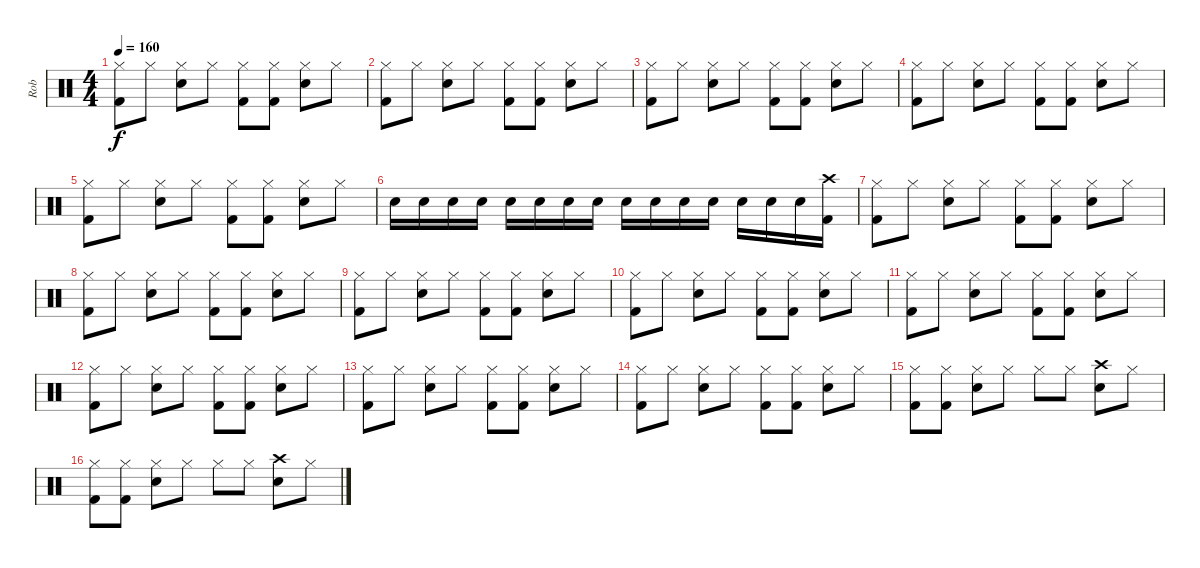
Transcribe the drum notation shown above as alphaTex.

\track ("Rob" "Rob") {instrument percussion}
\staff {score}
\articulation defaults
\ts (4 4)
\tempo 160
\clef neutral
\ks c
("Hi-Hat (closed)" "Kick (hit) 2").8{dy f} "Hi-Hat (closed)".8 ("Hi-Hat (closed)" "Electric Snare (hit)").8 "Hi-Hat (closed)".8 ("Hi-Hat (closed)" "Kick (hit) 2").8 ("Hi-Hat (closed)" "Kick (hit) 2").8 ("Hi-Hat (closed)" "Electric Snare (hit)").8 "Hi-Hat (closed)".8 |
("Hi-Hat (closed)" "Kick (hit) 2").8 "Hi-Hat (closed)".8 ("Hi-Hat (closed)" "Electric Snare (hit)").8 "Hi-Hat (closed)".8 ("Hi-Hat (closed)" "Kick (hit) 2").8 ("Hi-Hat (closed)" "Kick (hit) 2").8 ("Hi-Hat (closed)" "Electric Snare (hit)").8 "Hi-Hat (closed)".8 |
("Hi-Hat (closed)" "Kick (hit) 2").8 "Hi-Hat (closed)".8 ("Hi-Hat (closed)" "Electric Snare (hit)").8 "Hi-Hat (closed)".8 ("Hi-Hat (closed)" "Kick (hit) 2").8 ("Hi-Hat (closed)" "Kick (hit) 2").8 ("Hi-Hat (closed)" "Electric Snare (hit)").8 "Hi-Hat (closed)".8 |
("Hi-Hat (closed)" "Kick (hit) 2").8 "Hi-Hat (closed)".8 ("Hi-Hat (closed)" "Electric Snare (hit)").8 "Hi-Hat (closed)".8 ("Hi-Hat (closed)" "Kick (hit) 2").8 ("Hi-Hat (closed)" "Kick (hit) 2").8 ("Hi-Hat (closed)" "Electric Snare (hit)").8 "Hi-Hat (closed)".8 |
("Hi-Hat (closed)" "Kick (hit) 2").8 "Hi-Hat (closed)".8 ("Hi-Hat (closed)" "Electric Snare (hit)").8 "Hi-Hat (closed)".8 ("Hi-Hat (closed)" "Kick (hit) 2").8 ("Hi-Hat (closed)" "Kick (hit) 2").8 ("Hi-Hat (closed)" "Electric Snare (hit)").8 "Hi-Hat (closed)".8 |
"Electric Snare (hit)".16 "Electric Snare (hit)".16 "Electric Snare (hit)".16 "Electric Snare (hit)".16 "Electric Snare (hit)".16 "Electric Snare (hit)".16 "Electric Snare (hit)".16 "Electric Snare (hit)".16 "Electric Snare (hit)".16 "Electric Snare (hit)".16 "Electric Snare (hit)".16 "Electric Snare (hit)".16 "Electric Snare (hit)".16 "Electric Snare (hit)".16 "Electric Snare (hit)".16 ("Crash high (hit)" "Kick (hit) 2").16 |
("Hi-Hat (closed)" "Kick (hit) 2").8 "Hi-Hat (closed)".8 ("Hi-Hat (closed)" "Electric Snare (hit)").8 "Hi-Hat (closed)".8 ("Hi-Hat (closed)" "Kick (hit) 2").8 ("Hi-Hat (closed)" "Kick (hit) 2").8 ("Hi-Hat (closed)" "Electric Snare (hit)").8 "Hi-Hat (closed)".8 |
("Hi-Hat (closed)" "Kick (hit) 2").8 "Hi-Hat (closed)".8 ("Hi-Hat (closed)" "Electric Snare (hit)").8 "Hi-Hat (closed)".8 ("Hi-Hat (closed)" "Kick (hit) 2").8 ("Hi-Hat (closed)" "Kick (hit) 2").8 ("Hi-Hat (closed)" "Electric Snare (hit)").8 "Hi-Hat (closed)".8 |
("Hi-Hat (closed)" "Kick (hit) 2").8 "Hi-Hat (closed)".8 ("Hi-Hat (closed)" "Electric Snare (hit)").8 "Hi-Hat (closed)".8 ("Hi-Hat (closed)" "Kick (hit) 2").8 ("Hi-Hat (closed)" "Kick (hit) 2").8 ("Hi-Hat (closed)" "Electric Snare (hit)").8 "Hi-Hat (closed)".8 |
("Hi-Hat (closed)" "Kick (hit) 2").8 "Hi-Hat (closed)".8 ("Hi-Hat (closed)" "Electric Snare (hit)").8 "Hi-Hat (closed)".8 ("Hi-Hat (closed)" "Kick (hit) 2").8 ("Hi-Hat (closed)" "Kick (hit) 2").8 ("Hi-Hat (closed)" "Electric Snare (hit)").8 "Hi-Hat (closed)".8 |
("Hi-Hat (closed)" "Kick (hit) 2").8 "Hi-Hat (closed)".8 ("Hi-Hat (closed)" "Electric Snare (hit)").8 "Hi-Hat (closed)".8 ("Hi-Hat (closed)" "Kick (hit) 2").8 ("Hi-Hat (closed)" "Kick (hit) 2").8 ("Hi-Hat (closed)" "Electric Snare (hit)").8 "Hi-Hat (closed)".8 |
("Hi-Hat (closed)" "Kick (hit) 2").8 "Hi-Hat (closed)".8 ("Hi-Hat (closed)" "Electric Snare (hit)").8 "Hi-Hat (closed)".8 ("Hi-Hat (closed)" "Kick (hit) 2").8 ("Hi-Hat (closed)" "Kick (hit) 2").8 ("Hi-Hat (closed)" "Electric Snare (hit)").8 "Hi-Hat (closed)".8 |
("Hi-Hat (closed)" "Kick (hit) 2").8 "Hi-Hat (closed)".8 ("Hi-Hat (closed)" "Electric Snare (hit)").8 "Hi-Hat (closed)".8 ("Hi-Hat (closed)" "Kick (hit) 2").8 ("Hi-Hat (closed)" "Kick (hit) 2").8 ("Hi-Hat (closed)" "Electric Snare (hit)").8 "Hi-Hat (closed)".8 |
("Hi-Hat (closed)" "Kick (hit) 2").8 "Hi-Hat (closed)".8 ("Hi-Hat (closed)" "Electric Snare (hit)").8 "Hi-Hat (closed)".8 ("Hi-Hat (closed)" "Kick (hit) 2").8 ("Hi-Hat (closed)" "Kick (hit) 2").8 ("Hi-Hat (closed)" "Electric Snare (hit)").8 "Hi-Hat (closed)".8 |
("Hi-Hat (closed)" "Kick (hit) 2").8 ("Hi-Hat (closed)" "Kick (hit) 2").8 ("Hi-Hat (closed)" "Electric Snare (hit)").8 "Hi-Hat (closed)".8 "Hi-Hat (closed)".8 "Hi-Hat (closed)".8 ("Crash high (hit)" "Electric Snare (hit)").8 "Hi-Hat (closed)".8 |
("Hi-Hat (closed)" "Kick (hit) 2").8 ("Hi-Hat (closed)" "Kick (hit) 2").8 ("Hi-Hat (closed)" "Electric Snare (hit)").8 "Hi-Hat (closed)".8 "Hi-Hat (closed)".8 "Hi-Hat (closed)".8 ("Crash high (hit)" "Electric Snare (hit)").8 "Hi-Hat (closed)".8
